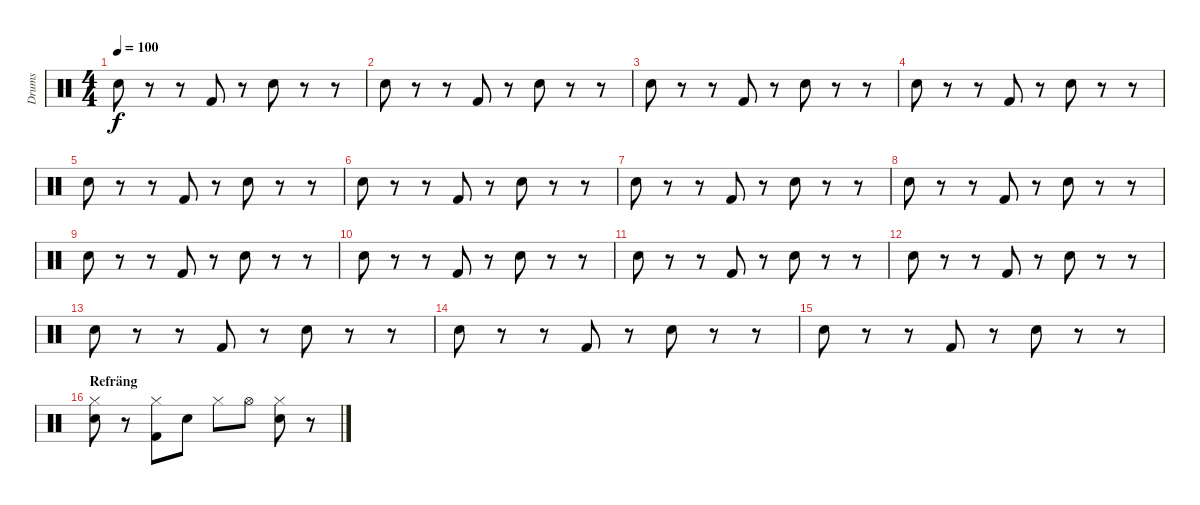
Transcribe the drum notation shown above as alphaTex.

\track ("Drums" "Drums") {instrument percussion}
\staff {score}
\articulation defaults
\ts (4 4)
\tempo 100
\clef neutral
\ks c "Snare (hit) 2".8{dy f}
r.8 r.8 "Kick (hit) 2".8 r.8 "Snare (hit) 2".8 r.8 r.8 |
"Snare (hit) 2".8 r.8 r.8 "Kick (hit) 2".8 r.8 "Snare (hit) 2".8 r.8 r.8 |
"Snare (hit) 2".8 r.8 r.8 "Kick (hit) 2".8 r.8 "Snare (hit) 2".8 r.8 r.8 |
"Snare (hit) 2".8 r.8 r.8 "Kick (hit) 2".8 r.8 "Snare (hit) 2".8 r.8 r.8 |
"Snare (hit) 2".8 r.8 r.8 "Kick (hit) 2".8 r.8 "Snare (hit) 2".8 r.8 r.8 |
"Snare (hit) 2".8 r.8 r.8 "Kick (hit) 2".8 r.8 "Snare (hit) 2".8 r.8 r.8 |
"Snare (hit) 2".8 r.8 r.8 "Kick (hit) 2".8 r.8 "Snare (hit) 2".8 r.8 r.8 |
"Snare (hit) 2".8 r.8 r.8 "Kick (hit) 2".8 r.8 "Snare (hit) 2".8 r.8 r.8 |
"Snare (hit) 2".8 r.8 r.8 "Kick (hit) 2".8 r.8 "Snare (hit) 2".8 r.8 r.8 |
"Snare (hit) 2".8 r.8 r.8 "Kick (hit) 2".8 r.8 "Snare (hit) 2".8 r.8 r.8 |
"Snare (hit) 2".8 r.8 r.8 "Kick (hit) 2".8 r.8 "Snare (hit) 2".8 r.8 r.8 |
"Snare (hit) 2".8 r.8 r.8 "Kick (hit) 2".8 r.8 "Snare (hit) 2".8 r.8 r.8 |
"Snare (hit) 2".8 r.8 r.8 "Kick (hit) 2".8 r.8 "Snare (hit) 2".8 r.8 r.8 |
"Snare (hit) 2".8 r.8 r.8 "Kick (hit) 2".8 r.8 "Snare (hit) 2".8 r.8 r.8 |
"Snare (hit) 2".8 r.8 r.8 "Kick (hit) 2".8 r.8 "Snare (hit) 2".8 r.8 r.8 |
\section ("" "Refräng")
("Hi-Hat (closed)" "Snare (hit) 2").8 r.8 ("Hi-Hat (closed)" "Kick (hit) 2").8 "Snare (hit) 2".8 "Hi-Hat (closed)".8 "Hi-Hat (open)".8 ("Hi-Hat (closed)" "Snare (hit) 2").8 r.8
